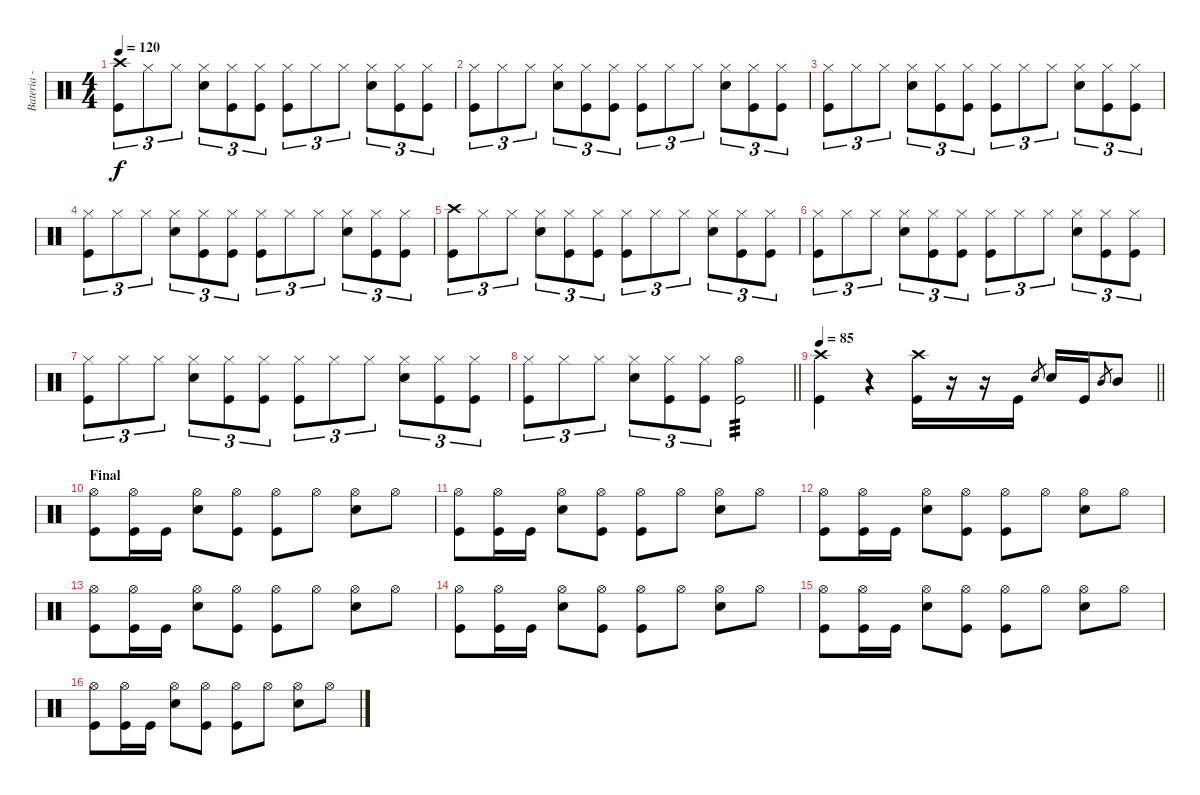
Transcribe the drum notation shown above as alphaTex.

\track ("Bateria - Joaquin" "Bateria - ") {instrument percussion}
\staff {score}
\articulation defaults
\ts (4 4)
\tempo 120
\clef neutral
\ks c
("Crash high (hit)" "Kick (hit)").8{tu (3 2) dy f} "Hi-Hat (closed)".8{tu (3 2)} "Hi-Hat (closed)".8{tu (3 2)} ("Hi-Hat (closed)" "Snare (hit) 2").8{tu (3 2)} ("Hi-Hat (closed)" "Kick (hit)").8{tu (3 2)} ("Hi-Hat (closed)" "Kick (hit)").8{tu (3 2)} ("Hi-Hat (closed)" "Kick (hit)").8{tu (3 2)} "Hi-Hat (closed)".8{tu (3 2)} "Hi-Hat (closed)".8{tu (3 2)} ("Hi-Hat (closed)" "Snare (hit) 2").8{tu (3 2)} ("Hi-Hat (closed)" "Kick (hit)").8{tu (3 2)} ("Hi-Hat (closed)" "Kick (hit)").8{tu (3 2)} |
("Hi-Hat (closed)" "Kick (hit)").8{tu (3 2)} "Hi-Hat (closed)".8{tu (3 2)} "Hi-Hat (closed)".8{tu (3 2)} ("Hi-Hat (closed)" "Snare (hit) 2").8{tu (3 2)} ("Hi-Hat (closed)" "Kick (hit)").8{tu (3 2)} ("Hi-Hat (closed)" "Kick (hit)").8{tu (3 2)} ("Hi-Hat (closed)" "Kick (hit)").8{tu (3 2)} "Hi-Hat (closed)".8{tu (3 2)} "Hi-Hat (closed)".8{tu (3 2)} ("Hi-Hat (closed)" "Snare (hit) 2").8{tu (3 2)} ("Hi-Hat (closed)" "Kick (hit)").8{tu (3 2)} ("Hi-Hat (closed)" "Kick (hit)").8{tu (3 2)} |
("Hi-Hat (closed)" "Kick (hit)").8{tu (3 2)} "Hi-Hat (closed)".8{tu (3 2)} "Hi-Hat (closed)".8{tu (3 2)} ("Hi-Hat (closed)" "Snare (hit) 2").8{tu (3 2)} ("Hi-Hat (closed)" "Kick (hit)").8{tu (3 2)} ("Hi-Hat (closed)" "Kick (hit)").8{tu (3 2)} ("Hi-Hat (closed)" "Kick (hit)").8{tu (3 2)} "Hi-Hat (closed)".8{tu (3 2)} "Hi-Hat (closed)".8{tu (3 2)} ("Hi-Hat (closed)" "Snare (hit) 2").8{tu (3 2)} ("Hi-Hat (closed)" "Kick (hit)").8{tu (3 2)} ("Hi-Hat (closed)" "Kick (hit)").8{tu (3 2)} |
("Hi-Hat (closed)" "Kick (hit)").8{tu (3 2)} "Hi-Hat (closed)".8{tu (3 2)} "Hi-Hat (closed)".8{tu (3 2)} ("Hi-Hat (closed)" "Snare (hit) 2").8{tu (3 2)} ("Hi-Hat (closed)" "Kick (hit)").8{tu (3 2)} ("Hi-Hat (closed)" "Kick (hit)").8{tu (3 2)} ("Hi-Hat (closed)" "Kick (hit)").8{tu (3 2)} "Hi-Hat (closed)".8{tu (3 2)} "Hi-Hat (closed)".8{tu (3 2)} ("Hi-Hat (closed)" "Snare (hit) 2").8{tu (3 2)} ("Hi-Hat (closed)" "Kick (hit)").8{tu (3 2)} ("Hi-Hat (closed)" "Kick (hit)").8{tu (3 2)} |
("Crash high (hit)" "Kick (hit)").8{tu (3 2)} "Hi-Hat (closed)".8{tu (3 2)} "Hi-Hat (closed)".8{tu (3 2)} ("Hi-Hat (closed)" "Snare (hit) 2").8{tu (3 2)} ("Hi-Hat (closed)" "Kick (hit)").8{tu (3 2)} ("Hi-Hat (closed)" "Kick (hit)").8{tu (3 2)} ("Hi-Hat (closed)" "Kick (hit)").8{tu (3 2)} "Hi-Hat (closed)".8{tu (3 2)} "Hi-Hat (closed)".8{tu (3 2)} ("Hi-Hat (closed)" "Snare (hit) 2").8{tu (3 2)} ("Hi-Hat (closed)" "Kick (hit)").8{tu (3 2)} ("Hi-Hat (closed)" "Kick (hit)").8{tu (3 2)} |
("Hi-Hat (closed)" "Kick (hit)").8{tu (3 2)} "Hi-Hat (closed)".8{tu (3 2)} "Hi-Hat (closed)".8{tu (3 2)} ("Hi-Hat (closed)" "Snare (hit) 2").8{tu (3 2)} ("Hi-Hat (closed)" "Kick (hit)").8{tu (3 2)} ("Hi-Hat (closed)" "Kick (hit)").8{tu (3 2)} ("Hi-Hat (closed)" "Kick (hit)").8{tu (3 2)} "Hi-Hat (closed)".8{tu (3 2)} "Hi-Hat (closed)".8{tu (3 2)} ("Hi-Hat (closed)" "Snare (hit) 2").8{tu (3 2)} ("Hi-Hat (closed)" "Kick (hit)").8{tu (3 2)} ("Hi-Hat (closed)" "Kick (hit)").8{tu (3 2)} |
("Hi-Hat (closed)" "Kick (hit)").8{tu (3 2)} "Hi-Hat (closed)".8{tu (3 2)} "Hi-Hat (closed)".8{tu (3 2)} ("Hi-Hat (closed)" "Snare (hit) 2").8{tu (3 2)} ("Hi-Hat (closed)" "Kick (hit)").8{tu (3 2)} ("Hi-Hat (closed)" "Kick (hit)").8{tu (3 2)} ("Hi-Hat (closed)" "Kick (hit)").8{tu (3 2)} "Hi-Hat (closed)".8{tu (3 2)} "Hi-Hat (closed)".8{tu (3 2)} ("Hi-Hat (closed)" "Snare (hit) 2").8{tu (3 2)} ("Hi-Hat (closed)" "Kick (hit)").8{tu (3 2)} ("Hi-Hat (closed)" "Kick (hit)").8{tu (3 2)} |
\barLineRight lightlight
("Hi-Hat (closed)" "Kick (hit)").8{tu (3 2)} "Hi-Hat (closed)".8{tu (3 2)} "Hi-Hat (closed)".8{tu (3 2)} ("Hi-Hat (closed)" "Snare (hit) 2").8{tu (3 2)} ("Hi-Hat (closed)" "Kick (hit)").8{tu (3 2)} ("Hi-Hat (closed)" "Kick (hit)").8{tu (3 2)} ("Hi-Hat (open)" "Kick (hit)").2{tp 3} |
\tempo 85
\barLineRight lightlight
("Kick (hit)" "Crash high (hit)").4 r.4 ("Kick (hit)" "Crash high (hit)").16 r.16 r.16 "Kick (hit)".16 "Snare (hit) 2".8{gr} "Snare (hit) 2".16 "Kick (hit)".16 "Mid Tom (hit)".8{gr} "Mid Tom (hit)".8 |
\section ("" "Final")
("Hi-Hat (open)" "Kick (hit)").8 ("Hi-Hat (open)" "Kick (hit)").16 "Kick (hit)".16 ("Hi-Hat (open)" "Snare (hit) 2").8 ("Hi-Hat (open)" "Kick (hit)").8 ("Hi-Hat (open)" "Kick (hit)").8 "Hi-Hat (open)".8 ("Hi-Hat (open)" "Snare (hit) 2").8 "Hi-Hat (open)".8 |
("Hi-Hat (open)" "Kick (hit)").8 ("Hi-Hat (open)" "Kick (hit)").16 "Kick (hit)".16 ("Hi-Hat (open)" "Snare (hit) 2").8 ("Hi-Hat (open)" "Kick (hit)").8 ("Hi-Hat (open)" "Kick (hit)").8 "Hi-Hat (open)".8 ("Hi-Hat (open)" "Snare (hit) 2").8 "Hi-Hat (open)".8 |
("Hi-Hat (open)" "Kick (hit)").8 ("Hi-Hat (open)" "Kick (hit)").16 "Kick (hit)".16 ("Hi-Hat (open)" "Snare (hit) 2").8 ("Hi-Hat (open)" "Kick (hit)").8 ("Hi-Hat (open)" "Kick (hit)").8 "Hi-Hat (open)".8 ("Hi-Hat (open)" "Snare (hit) 2").8 "Hi-Hat (open)".8 |
("Hi-Hat (open)" "Kick (hit)").8 ("Hi-Hat (open)" "Kick (hit)").16 "Kick (hit)".16 ("Hi-Hat (open)" "Snare (hit) 2").8 ("Hi-Hat (open)" "Kick (hit)").8 ("Hi-Hat (open)" "Kick (hit)").8 "Hi-Hat (open)".8 ("Hi-Hat (open)" "Snare (hit) 2").8 "Hi-Hat (open)".8 |
("Hi-Hat (open)" "Kick (hit)").8 ("Hi-Hat (open)" "Kick (hit)").16 "Kick (hit)".16 ("Hi-Hat (open)" "Snare (hit) 2").8 ("Hi-Hat (open)" "Kick (hit)").8 ("Hi-Hat (open)" "Kick (hit)").8 "Hi-Hat (open)".8 ("Hi-Hat (open)" "Snare (hit) 2").8 "Hi-Hat (open)".8 |
("Hi-Hat (open)" "Kick (hit)").8 ("Hi-Hat (open)" "Kick (hit)").16 "Kick (hit)".16 ("Hi-Hat (open)" "Snare (hit) 2").8 ("Hi-Hat (open)" "Kick (hit)").8 ("Hi-Hat (open)" "Kick (hit)").8 "Hi-Hat (open)".8 ("Hi-Hat (open)" "Snare (hit) 2").8 "Hi-Hat (open)".8 |
("Hi-Hat (open)" "Kick (hit)").8 ("Hi-Hat (open)" "Kick (hit)").16 "Kick (hit)".16 ("Hi-Hat (open)" "Snare (hit) 2").8 ("Hi-Hat (open)" "Kick (hit)").8 ("Hi-Hat (open)" "Kick (hit)").8 "Hi-Hat (open)".8 ("Hi-Hat (open)" "Snare (hit) 2").8 "Hi-Hat (open)".8
